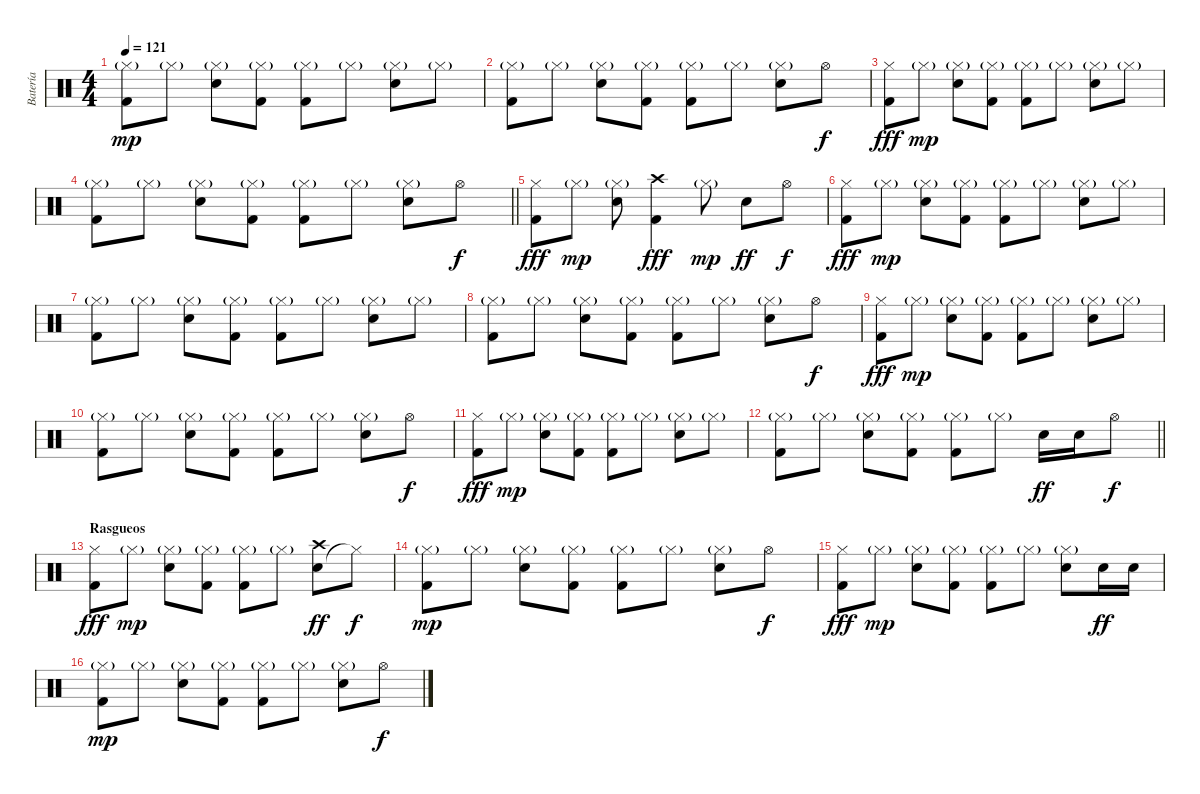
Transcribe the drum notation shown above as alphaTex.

\track ("Batería" "Batería") {instrument percussion}
\staff {score}
\articulation defaults
\ts (4 4)
\tempo 121
\clef neutral
\ks c
("Kick (hit) 2" "Hi-Hat (closed)"{g}).8{dy mp} "Hi-Hat (closed)"{g}.8 ("Snare (hit) 2" "Hi-Hat (closed)"{g}).8 ("Kick (hit) 2" "Hi-Hat (closed)"{g}).8 ("Kick (hit) 2" "Hi-Hat (closed)"{g}).8 "Hi-Hat (closed)"{g}.8 ("Snare (hit) 2" "Hi-Hat (closed)"{g}).8 "Hi-Hat (closed)"{g}.8 |
("Kick (hit) 2" "Hi-Hat (closed)"{g}).8 "Hi-Hat (closed)"{g}.8 ("Snare (hit) 2" "Hi-Hat (closed)"{g}).8 ("Kick (hit) 2" "Hi-Hat (closed)"{g}).8 ("Kick (hit) 2" "Hi-Hat (closed)"{g}).8 "Hi-Hat (closed)"{g}.8 ("Snare (hit) 2" "Hi-Hat (closed)"{g}).8 "Hi-Hat (open)".8{dy f} |
("Kick (hit) 2" "Hi-Hat (closed)").8{dy fff} "Hi-Hat (closed)"{g}.8{dy mp} ("Snare (hit) 2" "Hi-Hat (closed)"{g}).8 ("Kick (hit) 2" "Hi-Hat (closed)"{g}).8 ("Kick (hit) 2" "Hi-Hat (closed)"{g}).8 "Hi-Hat (closed)"{g}.8 ("Snare (hit) 2" "Hi-Hat (closed)"{g}).8 "Hi-Hat (closed)"{g}.8 |
\barLineRight lightlight
("Kick (hit) 2" "Hi-Hat (closed)"{g}).8 "Hi-Hat (closed)"{g}.8 ("Snare (hit) 2" "Hi-Hat (closed)"{g}).8 ("Kick (hit) 2" "Hi-Hat (closed)"{g}).8 ("Kick (hit) 2" "Hi-Hat (closed)"{g}).8 "Hi-Hat (closed)"{g}.8 ("Snare (hit) 2" "Hi-Hat (closed)"{g}).8 "Hi-Hat (open)".8{dy f} |
("Kick (hit) 2" "Hi-Hat (closed)").8{dy fff} "Hi-Hat (closed)"{g}.8{dy mp} ("Snare (hit) 2" "Hi-Hat (closed)"{g}).8 ("Kick (hit) 2" "Crash high (hit)").4{dy fff} "Hi-Hat (closed)"{g}.8{dy mp} "Snare (hit) 2".8{dy ff} "Hi-Hat (open)".8{dy f} |
("Kick (hit) 2" "Hi-Hat (closed)").8{dy fff} "Hi-Hat (closed)"{g}.8{dy mp} ("Snare (hit) 2" "Hi-Hat (closed)"{g}).8 ("Kick (hit) 2" "Hi-Hat (closed)"{g}).8 ("Kick (hit) 2" "Hi-Hat (closed)"{g}).8 "Hi-Hat (closed)"{g}.8 ("Snare (hit) 2" "Hi-Hat (closed)"{g}).8 "Hi-Hat (closed)"{g}.8 |
("Kick (hit) 2" "Hi-Hat (closed)"{g}).8 "Hi-Hat (closed)"{g}.8 ("Snare (hit) 2" "Hi-Hat (closed)"{g}).8 ("Kick (hit) 2" "Hi-Hat (closed)"{g}).8 ("Kick (hit) 2" "Hi-Hat (closed)"{g}).8 "Hi-Hat (closed)"{g}.8 ("Snare (hit) 2" "Hi-Hat (closed)"{g}).8 "Hi-Hat (closed)"{g}.8 |
("Kick (hit) 2" "Hi-Hat (closed)"{g}).8 "Hi-Hat (closed)"{g}.8 ("Snare (hit) 2" "Hi-Hat (closed)"{g}).8 ("Kick (hit) 2" "Hi-Hat (closed)"{g}).8 ("Kick (hit) 2" "Hi-Hat (closed)"{g}).8 "Hi-Hat (closed)"{g}.8 ("Snare (hit) 2" "Hi-Hat (closed)"{g}).8 "Hi-Hat (open)".8{dy f} |
("Kick (hit) 2" "Hi-Hat (closed)").8{dy fff} "Hi-Hat (closed)"{g}.8{dy mp} ("Snare (hit) 2" "Hi-Hat (closed)"{g}).8 ("Kick (hit) 2" "Hi-Hat (closed)"{g}).8 ("Kick (hit) 2" "Hi-Hat (closed)"{g}).8 "Hi-Hat (closed)"{g}.8 ("Snare (hit) 2" "Hi-Hat (closed)"{g}).8 "Hi-Hat (closed)"{g}.8 |
("Kick (hit) 2" "Hi-Hat (closed)"{g}).8 "Hi-Hat (closed)"{g}.8 ("Snare (hit) 2" "Hi-Hat (closed)"{g}).8 ("Kick (hit) 2" "Hi-Hat (closed)"{g}).8 ("Kick (hit) 2" "Hi-Hat (closed)"{g}).8 "Hi-Hat (closed)"{g}.8 ("Snare (hit) 2" "Hi-Hat (closed)"{g}).8 "Hi-Hat (open)".8{dy f} |
("Kick (hit) 2" "Hi-Hat (closed)").8{dy fff} "Hi-Hat (closed)"{g}.8{dy mp} ("Snare (hit) 2" "Hi-Hat (closed)"{g}).8 ("Kick (hit) 2" "Hi-Hat (closed)"{g}).8 ("Kick (hit) 2" "Hi-Hat (closed)"{g}).8 "Hi-Hat (closed)"{g}.8 ("Snare (hit) 2" "Hi-Hat (closed)"{g}).8 "Hi-Hat (closed)"{g}.8 |
\barLineRight lightlight
("Kick (hit) 2" "Hi-Hat (closed)"{g}).8 "Hi-Hat (closed)"{g}.8 ("Snare (hit) 2" "Hi-Hat (closed)"{g}).8 ("Kick (hit) 2" "Hi-Hat (closed)"{g}).8 ("Kick (hit) 2" "Hi-Hat (closed)"{g}).8 "Hi-Hat (closed)"{g}.8 "Snare (hit) 2".16{dy ff} "Snare (hit) 2".16 "Hi-Hat (open)".8{dy f} |
\section ("" "Rasgueos")
("Kick (hit) 2" "Hi-Hat (closed)").8{dy fff} "Hi-Hat (closed)"{g}.8{dy mp} ("Snare (hit) 2" "Hi-Hat (closed)"{g}).8 ("Kick (hit) 2" "Hi-Hat (closed)"{g}).8 ("Kick (hit) 2" "Hi-Hat (closed)"{g}).8 "Hi-Hat (closed)"{g}.8 ("Snare (hit) 2" "Crash high (hit)").8{dy ff} "Hi-Hat (closed)"{t}.8{dy f} |
("Kick (hit) 2" "Hi-Hat (closed)"{g}).8{dy mp} "Hi-Hat (closed)"{g}.8 ("Snare (hit) 2" "Hi-Hat (closed)"{g}).8 ("Kick (hit) 2" "Hi-Hat (closed)"{g}).8 ("Kick (hit) 2" "Hi-Hat (closed)"{g}).8 "Hi-Hat (closed)"{g}.8 ("Snare (hit) 2" "Hi-Hat (closed)"{g}).8 "Hi-Hat (open)".8{dy f} |
("Kick (hit) 2" "Hi-Hat (closed)").8{dy fff} "Hi-Hat (closed)"{g}.8{dy mp} ("Snare (hit) 2" "Hi-Hat (closed)"{g}).8 ("Kick (hit) 2" "Hi-Hat (closed)"{g}).8 ("Kick (hit) 2" "Hi-Hat (closed)"{g}).8 "Hi-Hat (closed)"{g}.8 ("Snare (hit) 2" "Hi-Hat (closed)"{g}).8 "Snare (hit) 2".16{dy ff} "Snare (hit) 2".16 |
("Kick (hit) 2" "Hi-Hat (closed)"{g}).8{dy mp} "Hi-Hat (closed)"{g}.8 ("Snare (hit) 2" "Hi-Hat (closed)"{g}).8 ("Kick (hit) 2" "Hi-Hat (closed)"{g}).8 ("Kick (hit) 2" "Hi-Hat (closed)"{g}).8 "Hi-Hat (closed)"{g}.8 ("Snare (hit) 2" "Hi-Hat (closed)"{g}).8 "Hi-Hat (open)".8{dy f}
